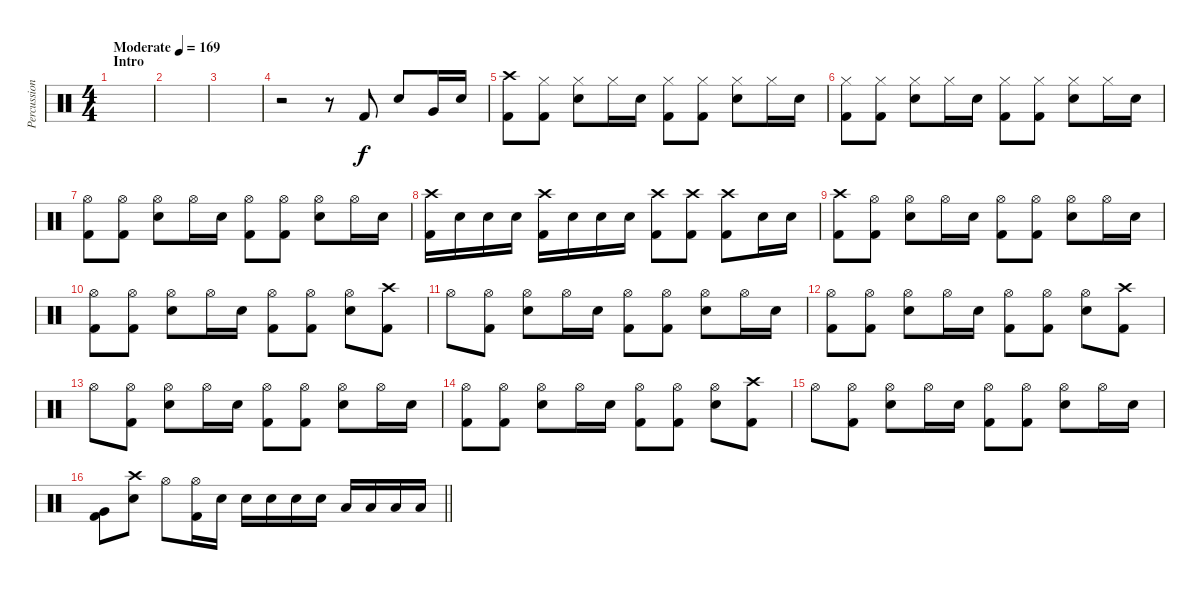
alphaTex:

\track ("Percussion" "Percussion") {instrument percussion}
\staff {score}
\articulation defaults
\ts (4 4)
\section ("" "Intro")
\tempo (169 "Moderate")
\clef neutral
\ks c
|
|
|
r.2 r.8 "Kick (hit) 2".8 "Electric Snare (hit)".8 "Very Low Tom (hit)".16 "Electric Snare (hit)".16 |
("Crash high (hit)" "Kick (hit) 2").8 ("Hi-Hat (closed)" "Kick (hit) 2").8 ("Hi-Hat (closed)" "Electric Snare (hit)").8 "Hi-Hat (closed)".16 "Electric Snare (hit)".16 ("Hi-Hat (closed)" "Kick (hit) 2").8 ("Hi-Hat (closed)" "Kick (hit) 2").8 ("Hi-Hat (closed)" "Electric Snare (hit)").8 "Hi-Hat (closed)".16 "Electric Snare (hit)".16 |
("Hi-Hat (closed)" "Kick (hit) 2").8 ("Hi-Hat (closed)" "Kick (hit) 2").8 ("Hi-Hat (closed)" "Electric Snare (hit)").8 "Hi-Hat (closed)".16 "Electric Snare (hit)".16 ("Hi-Hat (closed)" "Kick (hit) 2").8 ("Hi-Hat (closed)" "Kick (hit) 2").8 ("Hi-Hat (closed)" "Electric Snare (hit)").8 "Hi-Hat (closed)".16 "Electric Snare (hit)".16 |
("Hi-Hat (open)" "Kick (hit) 2").8 ("Hi-Hat (open)" "Kick (hit) 2").8 ("Hi-Hat (open)" "Electric Snare (hit)").8 "Hi-Hat (open)".16 "Electric Snare (hit)".16 ("Hi-Hat (open)" "Kick (hit) 2").8 ("Hi-Hat (open)" "Kick (hit) 2").8 ("Hi-Hat (open)" "Electric Snare (hit)").8 "Hi-Hat (open)".16 "Electric Snare (hit)".16 |
("Crash high (hit)" "Kick (hit) 2").16 "Electric Snare (hit)".16 "Electric Snare (hit)".16 "Electric Snare (hit)".16 ("Crash high (hit)" "Kick (hit) 2").16 "Electric Snare (hit)".16 "Electric Snare (hit)".16 "Electric Snare (hit)".16 ("Crash high (hit)" "Kick (hit) 2").8 ("Crash high (hit)" "Kick (hit) 2").8 ("Crash high (hit)" "Kick (hit) 2").8 "Electric Snare (hit)".16 "Electric Snare (hit)".16 |
("Crash high (hit)" "Kick (hit) 2").8 ("Hi-Hat (open)" "Kick (hit) 2").8 ("Hi-Hat (open)" "Electric Snare (hit)").8 "Hi-Hat (open)".16 "Electric Snare (hit)".16 ("Hi-Hat (open)" "Kick (hit) 2").8 ("Hi-Hat (open)" "Kick (hit) 2").8 ("Hi-Hat (open)" "Electric Snare (hit)").8 "Hi-Hat (open)".16 "Electric Snare (hit)".16 |
("Hi-Hat (open)" "Kick (hit) 2").8 ("Hi-Hat (open)" "Kick (hit) 2").8 ("Hi-Hat (open)" "Electric Snare (hit)").8 "Hi-Hat (open)".16 "Electric Snare (hit)".16 ("Hi-Hat (open)" "Kick (hit) 2").8 ("Hi-Hat (open)" "Kick (hit) 2").8 ("Hi-Hat (open)" "Electric Snare (hit)").8 ("Crash high (hit)" "Kick (hit) 2").8 |
"Hi-Hat (open)".8 ("Hi-Hat (open)" "Kick (hit) 2").8 ("Hi-Hat (open)" "Electric Snare (hit)").8 "Hi-Hat (open)".16 "Electric Snare (hit)".16 ("Hi-Hat (open)" "Kick (hit) 2").8 ("Hi-Hat (open)" "Kick (hit) 2").8 ("Hi-Hat (open)" "Electric Snare (hit)").8 "Hi-Hat (open)".16 "Electric Snare (hit)".16 |
("Hi-Hat (open)" "Kick (hit) 2").8 ("Hi-Hat (open)" "Kick (hit) 2").8 ("Hi-Hat (open)" "Electric Snare (hit)").8 "Hi-Hat (open)".16 "Electric Snare (hit)".16 ("Hi-Hat (open)" "Kick (hit) 2").8 ("Hi-Hat (open)" "Kick (hit) 2").8 ("Hi-Hat (open)" "Electric Snare (hit)").8 ("Crash high (hit)" "Kick (hit) 2").8 |
"Hi-Hat (open)".8 ("Hi-Hat (open)" "Kick (hit) 2").8 ("Hi-Hat (open)" "Electric Snare (hit)").8 "Hi-Hat (open)".16 "Electric Snare (hit)".16 ("Hi-Hat (open)" "Kick (hit) 2").8 ("Hi-Hat (open)" "Kick (hit) 2").8 ("Hi-Hat (open)" "Electric Snare (hit)").8 "Hi-Hat (open)".16 "Electric Snare (hit)".16 |
("Hi-Hat (open)" "Kick (hit) 2").8 ("Hi-Hat (open)" "Kick (hit) 2").8 ("Hi-Hat (open)" "Electric Snare (hit)").8 "Hi-Hat (open)".16 "Electric Snare (hit)".16 ("Hi-Hat (open)" "Kick (hit) 2").8 ("Hi-Hat (open)" "Kick (hit) 2").8 ("Hi-Hat (open)" "Electric Snare (hit)").8 ("Crash high (hit)" "Kick (hit) 2").8 |
"Hi-Hat (open)".8 ("Hi-Hat (open)" "Kick (hit) 2").8 ("Hi-Hat (open)" "Electric Snare (hit)").8 "Hi-Hat (open)".16 "Electric Snare (hit)".16 ("Hi-Hat (open)" "Kick (hit) 2").8 ("Hi-Hat (open)" "Kick (hit) 2").8 ("Hi-Hat (open)" "Electric Snare (hit)").8 "Hi-Hat (open)".16 "Electric Snare (hit)".16 |
\barLineRight lightlight
("Very Low Tom (hit)" "Kick (hit) 2").8 ("Crash high (hit)" "Electric Snare (hit)").8 "Hi-Hat (open)".8 ("Hi-Hat (open)" "Kick (hit) 2").16 "Electric Snare (hit)".16 "Electric Snare (hit)".16 "Electric Snare (hit)".16 "Electric Snare (hit)".16 "Electric Snare (hit)".16 "Low Tom (hit)".16 "Low Tom (hit)".16 "Low Tom (hit)".16 "Low Tom (hit)".16
